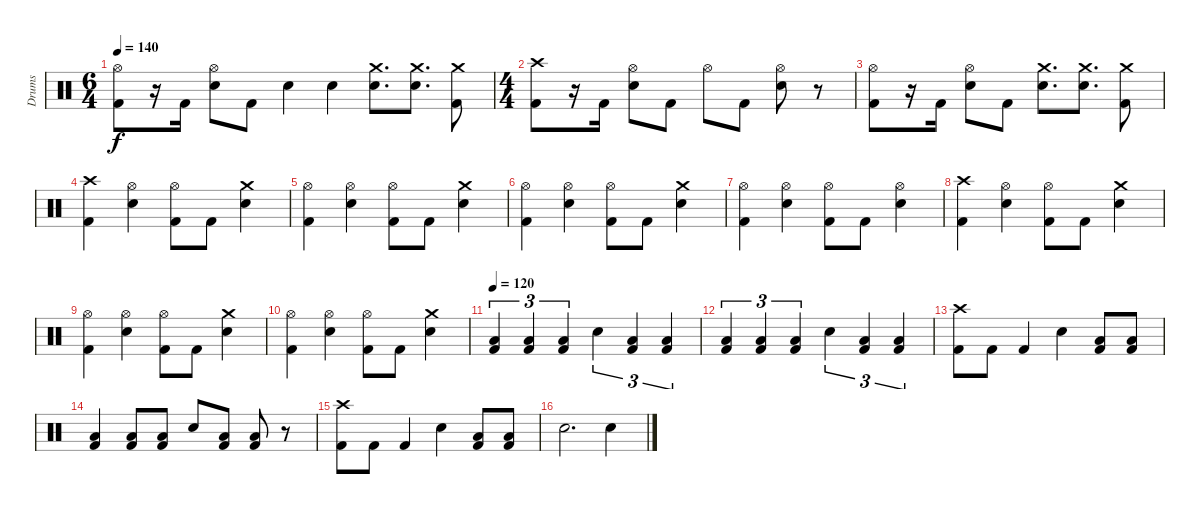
\track ("Drums" "Drums") {instrument percussion}
\staff {score}
\articulation defaults
\ts (6 4)
\tempo 140
\clef neutral
\ks c
("Kick (hit) 2" "Hi-Hat (open)").8{dy f} r.16 "Kick (hit) 2".16 ("Hi-Hat (open)" "Snare (hit) 2").8 "Kick (hit) 2".8 "Snare (hit) 2".4 "Snare (hit) 2".4 ("Snare (hit) 2" "Crash medium (hit)").8{d} ("Crash medium (hit)" "Snare (hit) 2").8{d} ("Kick (hit) 2" "Crash medium (hit)").8 |
\ts (4 4)
("Kick (hit) 2" "Crash high (hit)").8 r.16 "Kick (hit) 2".16 ("Hi-Hat (open)" "Snare (hit) 2").8 "Kick (hit) 2".8 "Hi-Hat (open)".8 "Kick (hit) 2".8 ("Hi-Hat (open)" "Snare (hit) 2").8 r.8 |
("Kick (hit) 2" "Hi-Hat (open)").8 r.16 "Kick (hit) 2".16 ("Hi-Hat (open)" "Snare (hit) 2").8 "Kick (hit) 2".8 ("Snare (hit) 2" "Crash medium (hit)").8{d} ("Crash medium (hit)" "Snare (hit) 2").8{d} ("Kick (hit) 2" "Crash medium (hit)").8 |
("Kick (hit) 2" "Crash high (hit)").4 ("Hi-Hat (open)" "Snare (hit) 2").4 ("Hi-Hat (open)" "Kick (hit) 2").8 "Kick (hit) 2".8 ("Snare (hit) 2" "Crash medium (hit)").4 |
("Kick (hit) 2" "Hi-Hat (open)").4 ("Hi-Hat (open)" "Snare (hit) 2").4 ("Hi-Hat (open)" "Kick (hit) 2").8 "Kick (hit) 2".8 ("Snare (hit) 2" "Crash medium (hit)").4 |
("Kick (hit) 2" "Hi-Hat (open)").4 ("Hi-Hat (open)" "Snare (hit) 2").4 ("Hi-Hat (open)" "Kick (hit) 2").8 "Kick (hit) 2".8 ("Snare (hit) 2" "Crash medium (hit)").4 |
("Kick (hit) 2" "Hi-Hat (open)").4 ("Hi-Hat (open)" "Snare (hit) 2").4 ("Hi-Hat (open)" "Kick (hit) 2").8 "Kick (hit) 2".8 ("Snare (hit) 2" "Hi-Hat (open)").4 |
("Kick (hit) 2" "Crash high (hit)").4 ("Hi-Hat (open)" "Snare (hit) 2").4 ("Hi-Hat (open)" "Kick (hit) 2").8 "Kick (hit) 2".8 ("Snare (hit) 2" "Crash medium (hit)").4 |
("Kick (hit) 2" "Hi-Hat (open)").4 ("Hi-Hat (open)" "Snare (hit) 2").4 ("Hi-Hat (open)" "Kick (hit) 2").8 "Kick (hit) 2".8 ("Snare (hit) 2" "Crash medium (hit)").4 |
("Kick (hit) 2" "Hi-Hat (open)").4 ("Hi-Hat (open)" "Snare (hit) 2").4 ("Hi-Hat (open)" "Kick (hit) 2").8 "Kick (hit) 2".8 ("Snare (hit) 2" "Crash medium (hit)").4 |
\tempo 120
("Low Floor Tom (hit)" "Kick (hit) 2").4{tu (3 2)} ("Low Floor Tom (hit)" "Kick (hit) 2").4{tu (3 2)} ("Low Floor Tom (hit)" "Kick (hit) 2").4{tu (3 2)} "Snare (hit) 2".4{tu (3 2)} ("Kick (hit) 2" "Low Floor Tom (hit)").4{tu (3 2)} ("Kick (hit) 2" "Low Floor Tom (hit)").4{tu (3 2)} |
("Low Floor Tom (hit)" "Kick (hit) 2").4{tu (3 2)} ("Low Floor Tom (hit)" "Kick (hit) 2").4{tu (3 2)} ("Low Floor Tom (hit)" "Kick (hit) 2").4{tu (3 2)} "Snare (hit) 2".4{tu (3 2)} ("Kick (hit) 2" "Low Floor Tom (hit)").4{tu (3 2)} ("Kick (hit) 2" "Low Floor Tom (hit)").4{tu (3 2)} |
("Crash high (hit)" "Kick (hit) 2").8 "Kick (hit) 2".8 "Kick (hit) 2".4 "Snare (hit) 2".4 ("Low Floor Tom (hit)" "Kick (hit) 2").8 ("Low Floor Tom (hit)" "Kick (hit) 2").8 |
("Low Floor Tom (hit)" "Kick (hit) 2").4 ("Low Floor Tom (hit)" "Kick (hit) 2").8 ("Low Floor Tom (hit)" "Kick (hit) 2").8 "Snare (hit) 2".8 ("Low Floor Tom (hit)" "Kick (hit) 2").8 ("Low Floor Tom (hit)" "Kick (hit) 2").8 r.8 |
("Crash high (hit)" "Kick (hit) 2").8 "Kick (hit) 2".8 "Kick (hit) 2".4 "Snare (hit) 2".4 ("Low Floor Tom (hit)" "Kick (hit) 2").8 ("Low Floor Tom (hit)" "Kick (hit) 2").8 |
"Snare (hit) 2".2{d} "Snare (hit) 2".4
